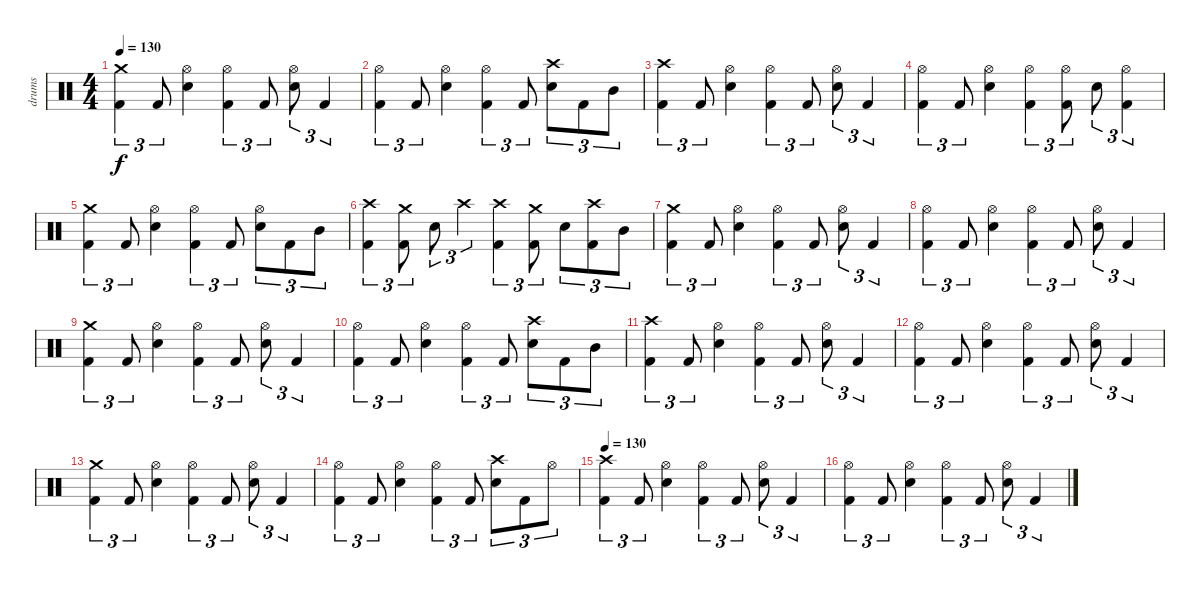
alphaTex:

\track ("drums" "drums") {instrument percussion}
\staff {score}
\articulation defaults
\ts (4 4)
\tempo 130
\clef neutral
\ks c
("Crash medium (hit)" "Kick (hit) 2").4{tu (3 2) dy f} "Kick (hit) 2".8{tu (3 2)} ("Hi-Hat (open)" "Electric Snare (hit)").4 ("Hi-Hat (open)" "Kick (hit) 2").4{tu (3 2)} "Kick (hit) 2".8{tu (3 2)} ("Hi-Hat (open)" "Electric Snare (hit)").8{tu (3 2)} "Kick (hit) 2".4{tu (3 2)} |
("Hi-Hat (open)" "Kick (hit) 2").4{tu (3 2)} "Kick (hit) 2".8{tu (3 2)} ("Hi-Hat (open)" "Electric Snare (hit)").4 ("Hi-Hat (open)" "Kick (hit) 2").4{tu (3 2)} "Kick (hit) 2".8{tu (3 2)} ("Crash high (hit)" "Electric Snare (hit)").8{tu (3 2)} "Kick (hit) 2".8{tu (3 2)} "Mid Tom (hit)".8{tu (3 2)} |
("Crash high (hit)" "Kick (hit) 2").4{tu (3 2)} "Kick (hit) 2".8{tu (3 2)} ("Hi-Hat (open)" "Electric Snare (hit)").4 ("Hi-Hat (open)" "Kick (hit) 2").4{tu (3 2)} "Kick (hit) 2".8{tu (3 2)} ("Hi-Hat (open)" "Electric Snare (hit)").8{tu (3 2)} "Kick (hit) 2".4{tu (3 2)} |
("Hi-Hat (open)" "Kick (hit) 2").4{tu (3 2)} "Kick (hit) 2".8{tu (3 2)} ("Hi-Hat (open)" "Electric Snare (hit)").4 ("Hi-Hat (open)" "Kick (hit) 2").4{tu (3 2)} ("Hi-Hat (open)" "Kick (hit) 2").8{tu (3 2)} "Electric Snare (hit)".8{tu (3 2)} ("Hi-Hat (open)" "Kick (hit) 2").4{tu (3 2)} |
("Crash medium (hit)" "Kick (hit) 2").4{tu (3 2)} "Kick (hit) 2".8{tu (3 2)} ("Hi-Hat (open)" "Electric Snare (hit)").4 ("Hi-Hat (open)" "Kick (hit) 2").4{tu (3 2)} "Kick (hit) 2".8{tu (3 2)} ("Hi-Hat (open)" "Electric Snare (hit)").8{tu (3 2)} "Kick (hit) 2".8{tu (3 2)} "Mid Tom (hit)".8{tu (3 2)} |
("Crash high (hit)" "Kick (hit) 2").4{tu (3 2)} ("Crash medium (hit)" "Kick (hit) 2").8{tu (3 2)} "Electric Snare (hit)".8{tu (3 2)} "Crash high (hit)".4{tu (3 2)} ("Crash high (hit)" "Kick (hit) 2").4{tu (3 2)} ("Crash medium (hit)" "Kick (hit) 2").8{tu (3 2)} "Electric Snare (hit)".8{tu (3 2)} ("Crash high (hit)" "Kick (hit) 2").8{tu (3 2)} "Mid Tom (hit)".8{tu (3 2)} |
("Crash medium (hit)" "Kick (hit) 2").4{tu (3 2)} "Kick (hit) 2".8{tu (3 2)} ("Hi-Hat (open)" "Electric Snare (hit)").4 ("Hi-Hat (open)" "Kick (hit) 2").4{tu (3 2)} "Kick (hit) 2".8{tu (3 2)} ("Hi-Hat (open)" "Electric Snare (hit)").8{tu (3 2)} "Kick (hit) 2".4{tu (3 2)} |
("Hi-Hat (open)" "Kick (hit) 2").4{tu (3 2)} "Kick (hit) 2".8{tu (3 2)} ("Hi-Hat (open)" "Electric Snare (hit)").4 ("Hi-Hat (open)" "Kick (hit) 2").4{tu (3 2)} "Kick (hit) 2".8{tu (3 2)} ("Hi-Hat (open)" "Electric Snare (hit)").8{tu (3 2)} "Kick (hit) 2".4{tu (3 2)} |
("Crash medium (hit)" "Kick (hit) 2").4{tu (3 2)} "Kick (hit) 2".8{tu (3 2)} ("Hi-Hat (open)" "Electric Snare (hit)").4 ("Hi-Hat (open)" "Kick (hit) 2").4{tu (3 2)} "Kick (hit) 2".8{tu (3 2)} ("Hi-Hat (open)" "Electric Snare (hit)").8{tu (3 2)} "Kick (hit) 2".4{tu (3 2)} |
("Hi-Hat (open)" "Kick (hit) 2").4{tu (3 2)} "Kick (hit) 2".8{tu (3 2)} ("Hi-Hat (open)" "Electric Snare (hit)").4 ("Hi-Hat (open)" "Kick (hit) 2").4{tu (3 2)} "Kick (hit) 2".8{tu (3 2)} ("Crash high (hit)" "Electric Snare (hit)").8{tu (3 2)} "Kick (hit) 2".8{tu (3 2)} "Mid Tom (hit)".8{tu (3 2)} |
("Crash high (hit)" "Kick (hit) 2").4{tu (3 2)} "Kick (hit) 2".8{tu (3 2)} ("Hi-Hat (open)" "Electric Snare (hit)").4 ("Hi-Hat (open)" "Kick (hit) 2").4{tu (3 2)} "Kick (hit) 2".8{tu (3 2)} ("Hi-Hat (open)" "Electric Snare (hit)").8{tu (3 2)} "Kick (hit) 2".4{tu (3 2)} |
("Hi-Hat (open)" "Kick (hit) 2").4{tu (3 2)} "Kick (hit) 2".8{tu (3 2)} ("Hi-Hat (open)" "Electric Snare (hit)").4 ("Hi-Hat (open)" "Kick (hit) 2").4{tu (3 2)} "Kick (hit) 2".8{tu (3 2)} ("Hi-Hat (open)" "Electric Snare (hit)").8{tu (3 2)} "Kick (hit) 2".4{tu (3 2)} |
("Crash medium (hit)" "Kick (hit) 2").4{tu (3 2)} "Kick (hit) 2".8{tu (3 2)} ("Hi-Hat (open)" "Electric Snare (hit)").4 ("Hi-Hat (open)" "Kick (hit) 2").4{tu (3 2)} "Kick (hit) 2".8{tu (3 2)} ("Hi-Hat (open)" "Electric Snare (hit)").8{tu (3 2)} "Kick (hit) 2".4{tu (3 2)} |
("Hi-Hat (open)" "Kick (hit) 2").4{tu (3 2)} "Kick (hit) 2".8{tu (3 2)} ("Hi-Hat (open)" "Electric Snare (hit)").4 ("Hi-Hat (open)" "Kick (hit) 2").4{tu (3 2)} "Kick (hit) 2".8{tu (3 2)} ("Crash high (hit)" "Electric Snare (hit)").8{tu (3 2)} "Kick (hit) 2".8{tu (3 2)} "Hi-Hat (open)".8{tu (3 2)} |
\tempo 130
("Crash high (hit)" "Kick (hit) 2").4{tu (3 2)} "Kick (hit) 2".8{tu (3 2)} ("Hi-Hat (open)" "Electric Snare (hit)").4 ("Hi-Hat (open)" "Kick (hit) 2").4{tu (3 2)} "Kick (hit) 2".8{tu (3 2)} ("Hi-Hat (open)" "Electric Snare (hit)").8{tu (3 2)} "Kick (hit) 2".4{tu (3 2)} |
("Hi-Hat (open)" "Kick (hit) 2").4{tu (3 2)} "Kick (hit) 2".8{tu (3 2)} ("Hi-Hat (open)" "Electric Snare (hit)").4 ("Hi-Hat (open)" "Kick (hit) 2").4{tu (3 2)} "Kick (hit) 2".8{tu (3 2)} ("Hi-Hat (open)" "Electric Snare (hit)").8{tu (3 2)} "Kick (hit) 2".4{tu (3 2)}
